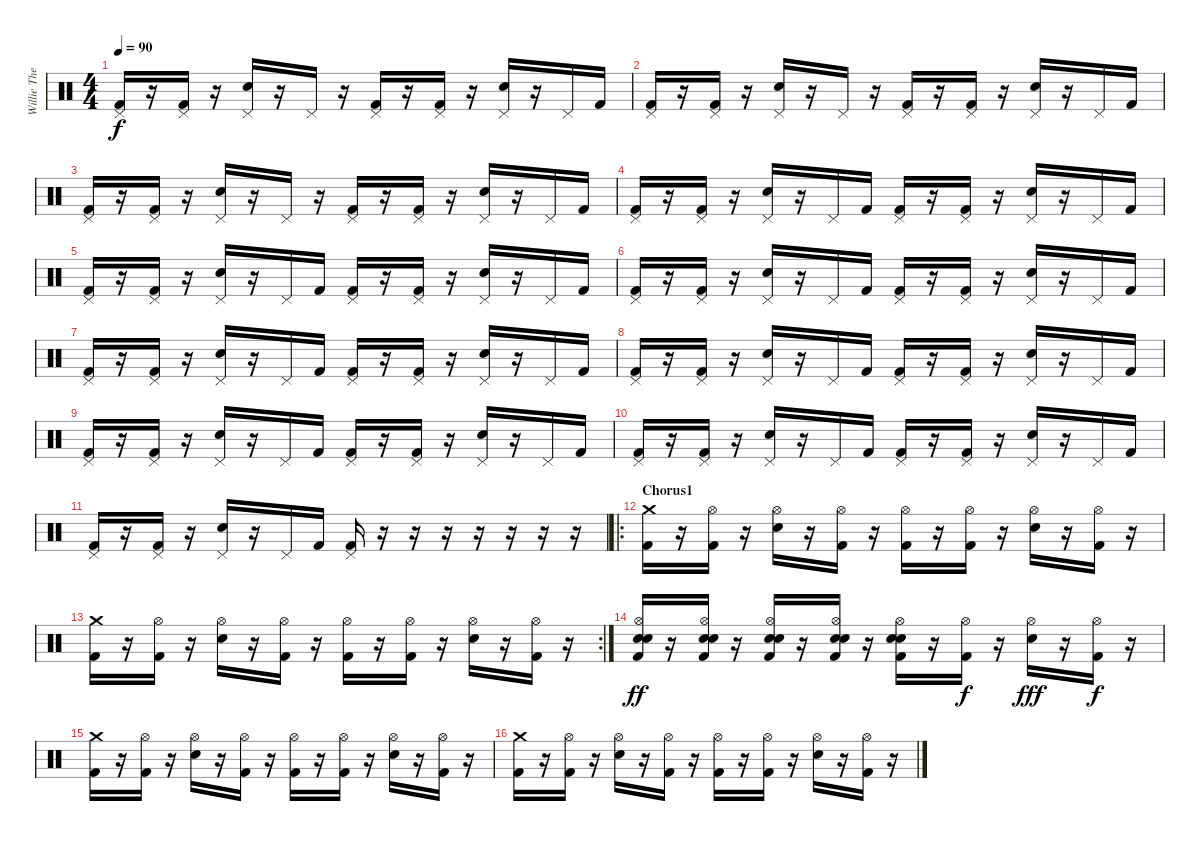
\track ("Willie The New Guy" "Willie The") {instrument percussion}
\staff {score}
\articulation defaults
\ts (4 4)
\tempo 90
\clef neutral
\ks c
("Pedal Hi-Hat (hit)" "Kick (hit) 2").16{dy f} r.16 ("Pedal Hi-Hat (hit)" "Kick (hit) 2").16 r.16 ("Pedal Hi-Hat (hit)" "Snare (hit) 2").16 r.16 "Pedal Hi-Hat (hit)".16 r.16 ("Pedal Hi-Hat (hit)" "Kick (hit) 2").16 r.16 ("Pedal Hi-Hat (hit)" "Kick (hit) 2").16 r.16 ("Pedal Hi-Hat (hit)" "Snare (hit) 2").16 r.16 "Pedal Hi-Hat (hit)".16 "Kick (hit) 2".16 |
("Pedal Hi-Hat (hit)" "Kick (hit) 2").16 r.16 ("Pedal Hi-Hat (hit)" "Kick (hit) 2").16 r.16 ("Pedal Hi-Hat (hit)" "Snare (hit) 2").16 r.16 "Pedal Hi-Hat (hit)".16 r.16 ("Pedal Hi-Hat (hit)" "Kick (hit) 2").16 r.16 ("Pedal Hi-Hat (hit)" "Kick (hit) 2").16 r.16 ("Pedal Hi-Hat (hit)" "Snare (hit) 2").16 r.16 "Pedal Hi-Hat (hit)".16 "Kick (hit) 2".16 |
("Pedal Hi-Hat (hit)" "Kick (hit) 2").16 r.16 ("Pedal Hi-Hat (hit)" "Kick (hit) 2").16 r.16 ("Pedal Hi-Hat (hit)" "Snare (hit) 2").16 r.16 "Pedal Hi-Hat (hit)".16 r.16 ("Pedal Hi-Hat (hit)" "Kick (hit) 2").16 r.16 ("Pedal Hi-Hat (hit)" "Kick (hit) 2").16 r.16 ("Pedal Hi-Hat (hit)" "Snare (hit) 2").16 r.16 "Pedal Hi-Hat (hit)".16 "Kick (hit) 2".16 |
("Pedal Hi-Hat (hit)" "Kick (hit) 2").16 r.16 ("Pedal Hi-Hat (hit)" "Kick (hit) 2").16 r.16 ("Pedal Hi-Hat (hit)" "Snare (hit) 2").16 r.16 "Pedal Hi-Hat (hit)".16 "Kick (hit) 2".16 ("Pedal Hi-Hat (hit)" "Kick (hit) 2").16 r.16 ("Pedal Hi-Hat (hit)" "Kick (hit) 2").16 r.16 ("Pedal Hi-Hat (hit)" "Snare (hit) 2").16 r.16 "Pedal Hi-Hat (hit)".16 "Kick (hit) 2".16 |
("Pedal Hi-Hat (hit)" "Kick (hit) 2").16 r.16 ("Pedal Hi-Hat (hit)" "Kick (hit) 2").16 r.16 ("Pedal Hi-Hat (hit)" "Snare (hit) 2").16 r.16 "Pedal Hi-Hat (hit)".16 "Kick (hit) 2".16 ("Pedal Hi-Hat (hit)" "Kick (hit) 2").16 r.16 ("Pedal Hi-Hat (hit)" "Kick (hit) 2").16 r.16 ("Pedal Hi-Hat (hit)" "Snare (hit) 2").16 r.16 "Pedal Hi-Hat (hit)".16 "Kick (hit) 2".16 |
("Pedal Hi-Hat (hit)" "Kick (hit) 2").16 r.16 ("Pedal Hi-Hat (hit)" "Kick (hit) 2").16 r.16 ("Pedal Hi-Hat (hit)" "Snare (hit) 2").16 r.16 "Pedal Hi-Hat (hit)".16 "Kick (hit) 2".16 ("Pedal Hi-Hat (hit)" "Kick (hit) 2").16 r.16 ("Pedal Hi-Hat (hit)" "Kick (hit) 2").16 r.16 ("Pedal Hi-Hat (hit)" "Snare (hit) 2").16 r.16 "Pedal Hi-Hat (hit)".16 "Kick (hit) 2".16 |
("Pedal Hi-Hat (hit)" "Kick (hit) 2").16 r.16 ("Pedal Hi-Hat (hit)" "Kick (hit) 2").16 r.16 ("Pedal Hi-Hat (hit)" "Snare (hit) 2").16 r.16 "Pedal Hi-Hat (hit)".16 "Kick (hit) 2".16 ("Pedal Hi-Hat (hit)" "Kick (hit) 2").16 r.16 ("Pedal Hi-Hat (hit)" "Kick (hit) 2").16 r.16 ("Pedal Hi-Hat (hit)" "Snare (hit) 2").16 r.16 "Pedal Hi-Hat (hit)".16 "Kick (hit) 2".16 |
("Pedal Hi-Hat (hit)" "Kick (hit) 2").16 r.16 ("Pedal Hi-Hat (hit)" "Kick (hit) 2").16 r.16 ("Pedal Hi-Hat (hit)" "Snare (hit) 2").16 r.16 "Pedal Hi-Hat (hit)".16 "Kick (hit) 2".16 ("Pedal Hi-Hat (hit)" "Kick (hit) 2").16 r.16 ("Pedal Hi-Hat (hit)" "Kick (hit) 2").16 r.16 ("Pedal Hi-Hat (hit)" "Snare (hit) 2").16 r.16 "Pedal Hi-Hat (hit)".16 "Kick (hit) 2".16 |
("Pedal Hi-Hat (hit)" "Kick (hit) 2").16 r.16 ("Pedal Hi-Hat (hit)" "Kick (hit) 2").16 r.16 ("Pedal Hi-Hat (hit)" "Snare (hit) 2").16 r.16 "Pedal Hi-Hat (hit)".16 "Kick (hit) 2".16 ("Pedal Hi-Hat (hit)" "Kick (hit) 2").16 r.16 ("Pedal Hi-Hat (hit)" "Kick (hit) 2").16 r.16 ("Pedal Hi-Hat (hit)" "Snare (hit) 2").16 r.16 "Pedal Hi-Hat (hit)".16 "Kick (hit) 2".16 |
("Pedal Hi-Hat (hit)" "Kick (hit) 2").16 r.16 ("Pedal Hi-Hat (hit)" "Kick (hit) 2").16 r.16 ("Pedal Hi-Hat (hit)" "Snare (hit) 2").16 r.16 "Pedal Hi-Hat (hit)".16 "Kick (hit) 2".16 ("Pedal Hi-Hat (hit)" "Kick (hit) 2").16 r.16 ("Pedal Hi-Hat (hit)" "Kick (hit) 2").16 r.16 ("Pedal Hi-Hat (hit)" "Snare (hit) 2").16 r.16 "Pedal Hi-Hat (hit)".16 "Kick (hit) 2".16 |
("Pedal Hi-Hat (hit)" "Kick (hit) 2").16 r.16 ("Pedal Hi-Hat (hit)" "Kick (hit) 2").16 r.16 ("Pedal Hi-Hat (hit)" "Snare (hit) 2").16 r.16 "Pedal Hi-Hat (hit)".16 "Kick (hit) 2".16 ("Pedal Hi-Hat (hit)" "Kick (hit) 2").16 r.16 r.16 r.16 r.16 r.16 r.16 r.16 |
\ro
\section ("" "Chorus1")
("Crash medium (hit)" "Kick (hit) 2").16 r.16 ("Hi-Hat (open)" "Kick (hit) 2").16 r.16 ("Hi-Hat (open)" "Snare (hit) 2").16 r.16 ("Hi-Hat (open)" "Kick (hit) 2").16 r.16 ("Hi-Hat (open)" "Kick (hit) 2").16 r.16 ("Hi-Hat (open)" "Kick (hit) 2").16 r.16 ("Hi-Hat (open)" "Snare (hit) 2").16 r.16 ("Hi-Hat (open)" "Kick (hit) 2").16 r.16 |
\rc 2
("Crash medium (hit)" "Kick (hit) 2").16 r.16 ("Hi-Hat (open)" "Kick (hit) 2").16 r.16 ("Hi-Hat (open)" "Snare (hit) 2").16 r.16 ("Hi-Hat (open)" "Kick (hit) 2").16 r.16 ("Hi-Hat (open)" "Kick (hit) 2").16 r.16 ("Hi-Hat (open)" "Kick (hit) 2").16 r.16 ("Hi-Hat (open)" "Snare (hit) 2").16 r.16 ("Hi-Hat (open)" "Kick (hit) 2").16 r.16 |
("Hi-Hat (open)" "Snare (hit) 2" "Electric Snare (hit)" "Kick (hit) 2").16{dy ff} r.16 ("Hi-Hat (open)" "Snare (hit) 2" "Electric Snare (hit)" "Kick (hit) 2").16 r.16 ("Hi-Hat (open)" "Snare (hit) 2" "Electric Snare (hit)" "Kick (hit) 2").16 r.16 ("Hi-Hat (open)" "Snare (hit) 2" "Electric Snare (hit)" "Kick (hit) 2").16 r.16 ("Hi-Hat (open)" "Snare (hit) 2" "Electric Snare (hit)" "Kick (hit) 2").16 r.16 ("Hi-Hat (open)" "Kick (hit) 2").16{dy f} r.16 ("Hi-Hat (open)" "Snare (hit) 2").16{dy fff} r.16 ("Hi-Hat (open)" "Kick (hit) 2").16{dy f} r.16 |
("Crash medium (hit)" "Kick (hit) 2").16 r.16 ("Hi-Hat (open)" "Kick (hit) 2").16 r.16 ("Hi-Hat (open)" "Snare (hit) 2").16 r.16 ("Hi-Hat (open)" "Kick (hit) 2").16 r.16 ("Hi-Hat (open)" "Kick (hit) 2").16 r.16 ("Hi-Hat (open)" "Kick (hit) 2").16 r.16 ("Hi-Hat (open)" "Snare (hit) 2").16 r.16 ("Hi-Hat (open)" "Kick (hit) 2").16 r.16 |
("Crash medium (hit)" "Kick (hit) 2").16 r.16 ("Hi-Hat (open)" "Kick (hit) 2").16 r.16 ("Hi-Hat (open)" "Snare (hit) 2").16 r.16 ("Hi-Hat (open)" "Kick (hit) 2").16 r.16 ("Hi-Hat (open)" "Kick (hit) 2").16 r.16 ("Hi-Hat (open)" "Kick (hit) 2").16 r.16 ("Hi-Hat (open)" "Snare (hit) 2").16 r.16 ("Hi-Hat (open)" "Kick (hit) 2").16 r.16
